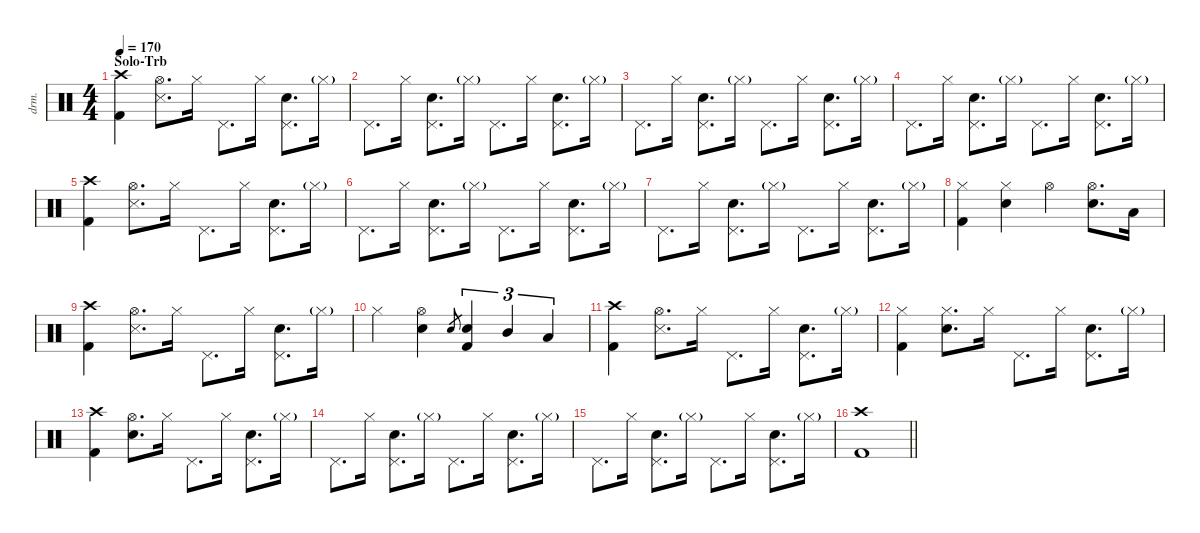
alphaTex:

\defaultSystemsLayout 4
\hideDynamics
\useSystemSignSeparator
\otherSystemsTrackNameOrientation horizontal
\extendBarLines
\track ("Drums" "drm.") {instrument percussion}
\staff {score}
\articulation defaults
\ts (4 4)
\section ("" "Solo-Trb")
\tempo 170
\clef neutral
\ks c
("Crash high (hit)" "Kick (hit) 2").4{dy f beam Down} ("Hi-Hat (open)" "Snare (side stick) 3").8{d beam Down} "Hi-Hat (closed)".16{beam Down} "Pedal Hi-Hat (hit)".8{d beam Down} "Hi-Hat (closed)".16{beam Down} ("Pedal Hi-Hat (hit)" "Snare (hit) 2").8{d beam Down} "Hi-Hat (closed)"{g}.16{dy mf beam Down} |
"Pedal Hi-Hat (hit)".8{d dy f beam Down} "Hi-Hat (closed)".16{beam Down} ("Pedal Hi-Hat (hit)" "Snare (hit) 2").8{d beam Down} "Hi-Hat (closed)"{g}.16{dy mf beam Down} "Pedal Hi-Hat (hit)".8{d dy f beam Down} "Hi-Hat (closed)".16{beam Down} ("Pedal Hi-Hat (hit)" "Snare (hit) 2").8{d beam Down} "Hi-Hat (closed)"{g}.16{dy mf beam Down} |
"Pedal Hi-Hat (hit)".8{d dy f beam Down} "Hi-Hat (closed)".16{beam Down} ("Pedal Hi-Hat (hit)" "Snare (hit) 2").8{d beam Down} "Hi-Hat (closed)"{g}.16{dy mf beam Down} "Pedal Hi-Hat (hit)".8{d dy f beam Down} "Hi-Hat (closed)".16{beam Down} ("Pedal Hi-Hat (hit)" "Snare (hit) 2").8{d beam Down} "Hi-Hat (closed)"{g}.16{dy mf beam Down} |
"Pedal Hi-Hat (hit)".8{d dy f beam Down} "Hi-Hat (closed)".16{beam Down} ("Pedal Hi-Hat (hit)" "Snare (hit) 2").8{d beam Down} "Hi-Hat (closed)"{g}.16{dy mf beam Down} "Pedal Hi-Hat (hit)".8{d dy f beam Down} "Hi-Hat (closed)".16{beam Down} ("Pedal Hi-Hat (hit)" "Snare (hit) 2").8{d beam Down} "Hi-Hat (closed)"{g}.16{dy mf beam Down} |
("Crash high (hit)" "Kick (hit) 2").4{dy f beam Down} ("Hi-Hat (open)" "Snare (side stick) 3").8{d beam Down} "Hi-Hat (closed)".16{beam Down} "Pedal Hi-Hat (hit)".8{d beam Down} "Hi-Hat (closed)".16{beam Down} ("Pedal Hi-Hat (hit)" "Snare (hit) 2").8{d beam Down} "Hi-Hat (closed)"{g}.16{dy mf beam Down} |
"Pedal Hi-Hat (hit)".8{d dy f beam Down} "Hi-Hat (closed)".16{beam Down} ("Pedal Hi-Hat (hit)" "Snare (hit) 2").8{d beam Down} "Hi-Hat (closed)"{g}.16{dy mf beam Down} "Pedal Hi-Hat (hit)".8{d dy f beam Down} "Hi-Hat (closed)".16{beam Down} ("Pedal Hi-Hat (hit)" "Snare (hit) 2").8{d beam Down} "Hi-Hat (closed)"{g}.16{dy mf beam Down} |
"Pedal Hi-Hat (hit)".8{d dy f beam Down} "Hi-Hat (closed)".16{beam Down} ("Pedal Hi-Hat (hit)" "Snare (hit) 2").8{d beam Down} "Hi-Hat (closed)"{g}.16{dy mf beam Down} "Pedal Hi-Hat (hit)".8{d dy f beam Down} "Hi-Hat (closed)".16{beam Down} ("Pedal Hi-Hat (hit)" "Snare (hit) 2").8{d beam Down} "Hi-Hat (closed)"{g}.16{dy mf beam Down} |
("Hi-Hat (closed)" "Kick (hit) 2").4{dy f beam Down} ("Hi-Hat (closed)" "Snare (hit) 2").4{beam Down} "Hi-Hat (open)".4{beam Down} ("Hi-Hat (open)" "Snare (hit) 2").8{d beam Down} "Low Tom (hit)".16{beam Down} |
("Crash high (hit)" "Kick (hit) 2").4{beam Down} ("Hi-Hat (open)" "Snare (side stick) 3").8{d beam Down} "Hi-Hat (closed)".16{beam Down} "Pedal Hi-Hat (hit)".8{d beam Down} "Hi-Hat (closed)".16{beam Down} ("Pedal Hi-Hat (hit)" "Snare (hit) 2").8{d beam Down} "Hi-Hat (closed)"{g}.16{dy mf beam Down} |
"Hi-Hat (closed)".4{dy f beam Down} ("Hi-Hat (open)" "Snare (hit) 2").4{beam Down} "Snare (hit) 2".8{gr dy mf beam Up} ("Snare (hit) 2" "Kick (hit) 2").4{tu (3 2) dy f beam Up} "Mid Tom (hit)".4{tu (3 2) beam Up} "Low Tom (hit)".4{tu (3 2) beam Up} |
("Crash high (hit)" "Kick (hit) 2").4{beam Down} ("Hi-Hat (open)" "Snare (side stick) 3").8{d beam Down} "Hi-Hat (closed)".16{beam Down} "Pedal Hi-Hat (hit)".8{d beam Down} "Hi-Hat (closed)".16{beam Down} ("Pedal Hi-Hat (hit)" "Snare (hit) 2").8{d beam Down} "Hi-Hat (closed)"{g}.16{dy mf beam Down} |
("Hi-Hat (closed)" "Kick (hit) 2").4{dy f beam Down} ("Hi-Hat (closed)" "Snare (hit) 2").8{d beam Down} "Hi-Hat (closed)".16{beam Down} "Pedal Hi-Hat (hit)".8{d beam Down} "Hi-Hat (closed)".16{beam Down} ("Pedal Hi-Hat (hit)" "Snare (hit) 2").8{d beam Down} "Hi-Hat (closed)"{g}.16{dy mf beam Down} |
("Crash high (hit)" "Kick (hit) 2").4{dy f beam Down} ("Hi-Hat (open)" "Snare (hit) 2").8{d beam Down} "Hi-Hat (closed)".16{beam Down} "Pedal Hi-Hat (hit)".8{d beam Down} "Hi-Hat (closed)".16{beam Down} ("Pedal Hi-Hat (hit)" "Snare (hit) 2").8{d beam Down} "Hi-Hat (closed)"{g}.16{dy mf beam Down} |
"Pedal Hi-Hat (hit)".8{d dy f beam Down} "Hi-Hat (closed)".16{beam Down} ("Pedal Hi-Hat (hit)" "Snare (hit) 2").8{d beam Down} "Hi-Hat (closed)"{g}.16{dy mf beam Down} "Pedal Hi-Hat (hit)".8{d dy f beam Down} "Hi-Hat (closed)".16{beam Down} ("Pedal Hi-Hat (hit)" "Snare (hit) 2").8{d beam Down} "Hi-Hat (closed)"{g}.16{dy mf beam Down} |
"Pedal Hi-Hat (hit)".8{d dy f beam Down} "Hi-Hat (closed)".16{beam Down} ("Pedal Hi-Hat (hit)" "Snare (hit) 2").8{d beam Down} "Hi-Hat (closed)"{g}.16{dy mf beam Down} "Pedal Hi-Hat (hit)".8{d dy f beam Down} "Hi-Hat (closed)".16{beam Down} ("Pedal Hi-Hat (hit)" "Snare (hit) 2").8{d beam Down} "Hi-Hat (closed)"{g}.16{dy mf beam Down} |
\barLineRight lightlight
("Crash high (hit)" "Kick (hit) 2").1{beam Down}
